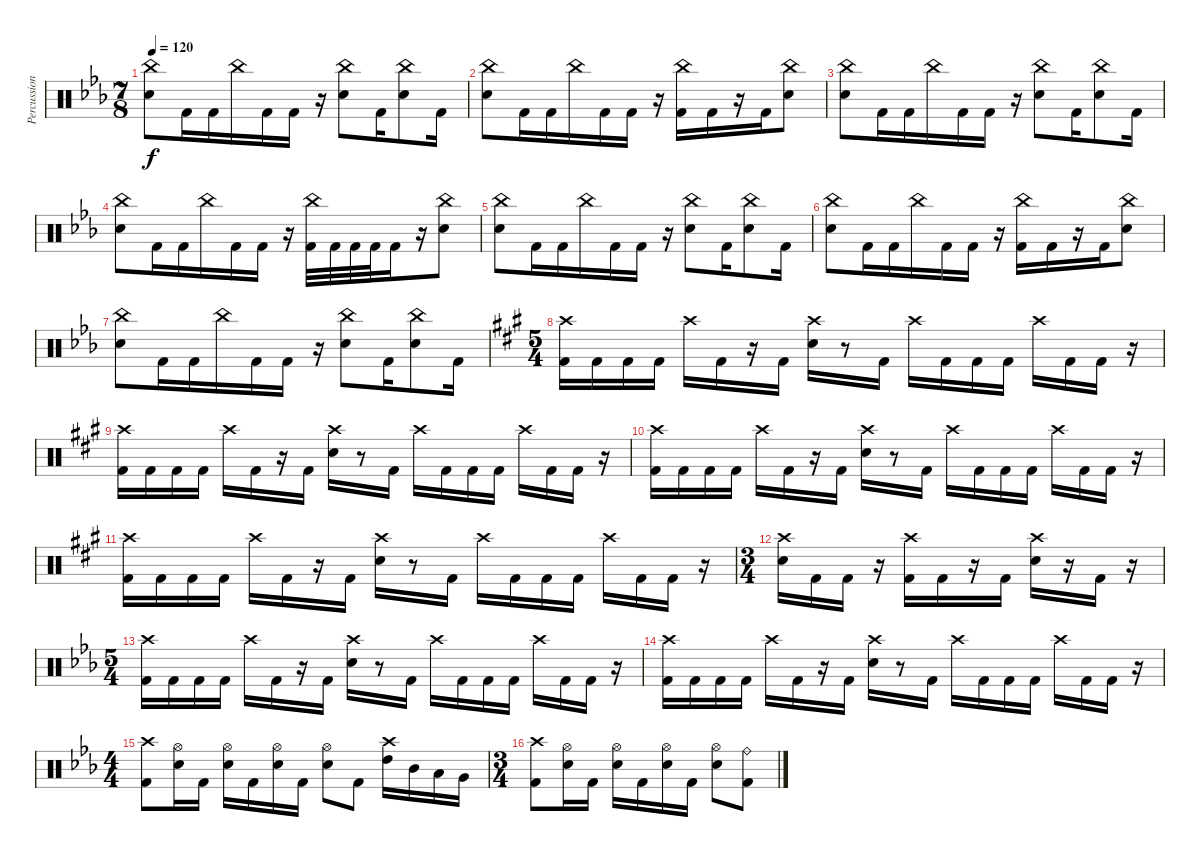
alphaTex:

\track ("Percussion" "Percussion") {instrument percussion}
\staff {score}
\articulation defaults
\ts (7 8)
\tempo 120
\clef neutral
\ks eb
("China (hit)" "Electric Snare (hit)").8{dy f} "Kick (hit) 2".16 "Kick (hit) 2".16 "China (hit)".16 "Kick (hit) 2".16 "Kick (hit) 2".16 r.16 ("China (hit)" "Electric Snare (hit)").8 "Kick (hit) 2".16 ("China (hit)" "Electric Snare (hit)").8 "Kick (hit) 2".16 |
("China (hit)" "Electric Snare (hit)").8 "Kick (hit) 2".16 "Kick (hit) 2".16 "China (hit)".16 "Kick (hit) 2".16 "Kick (hit) 2".16 r.16 ("China (hit)" "Kick (hit) 2").16 "Kick (hit) 2".16 r.16 "Kick (hit) 2".16 ("China (hit)" "Electric Snare (hit)").8 |
("China (hit)" "Electric Snare (hit)").8 "Kick (hit) 2".16 "Kick (hit) 2".16 "China (hit)".16 "Kick (hit) 2".16 "Kick (hit) 2".16 r.16 ("China (hit)" "Electric Snare (hit)").8 "Kick (hit) 2".16 ("China (hit)" "Electric Snare (hit)").8 "Kick (hit) 2".16 |
("China (hit)" "Electric Snare (hit)").8 "Kick (hit) 2".16 "Kick (hit) 2".16 "China (hit)".16 "Kick (hit) 2".16 "Kick (hit) 2".16 r.16 ("China (hit)" "Kick (hit) 2").32 "Kick (hit) 2".32 "Kick (hit) 2".32 "Kick (hit) 2".32 "Kick (hit) 2".16 r.16 ("China (hit)" "Electric Snare (hit)").8 |
("China (hit)" "Electric Snare (hit)").8 "Kick (hit) 2".16 "Kick (hit) 2".16 "China (hit)".16 "Kick (hit) 2".16 "Kick (hit) 2".16 r.16 ("China (hit)" "Electric Snare (hit)").8 "Kick (hit) 2".16 ("China (hit)" "Electric Snare (hit)").8 "Kick (hit) 2".16 |
("China (hit)" "Electric Snare (hit)").8 "Kick (hit) 2".16 "Kick (hit) 2".16 "China (hit)".16 "Kick (hit) 2".16 "Kick (hit) 2".16 r.16 ("China (hit)" "Kick (hit) 2").16 "Kick (hit) 2".16 r.16 "Kick (hit) 2".16 ("China (hit)" "Electric Snare (hit)").8 |
("China (hit)" "Electric Snare (hit)").8 "Kick (hit) 2".16 "Kick (hit) 2".16 "China (hit)".16 "Kick (hit) 2".16 "Kick (hit) 2".16 r.16 ("China (hit)" "Electric Snare (hit)").8 "Kick (hit) 2".16 ("China (hit)" "Electric Snare (hit)").8 "Kick (hit) 2".16 |
\ts (5 4)
\ks a
("Crash high (hit)" "Kick (hit) 2").16 "Kick (hit) 2".16 "Kick (hit) 2".16 "Kick (hit) 2".16 "Crash high (hit)".16 "Kick (hit) 2".16 r.16 "Kick (hit) 2".16 ("Crash high (hit)" "Electric Snare (hit)").16 r.8 "Kick (hit) 2".16 "Crash high (hit)".16 "Kick (hit) 2".16 "Kick (hit) 2".16 "Kick (hit) 2".16 "Crash high (hit)".16 "Kick (hit) 2".16 "Kick (hit) 2".16 r.16 |
("Crash high (hit)" "Kick (hit) 2").16 "Kick (hit) 2".16 "Kick (hit) 2".16 "Kick (hit) 2".16 "Crash high (hit)".16 "Kick (hit) 2".16 r.16 "Kick (hit) 2".16 ("Crash high (hit)" "Electric Snare (hit)").16 r.8 "Kick (hit) 2".16 "Crash high (hit)".16 "Kick (hit) 2".16 "Kick (hit) 2".16 "Kick (hit) 2".16 "Crash high (hit)".16 "Kick (hit) 2".16 "Kick (hit) 2".16 r.16 |
("Crash high (hit)" "Kick (hit) 2").16 "Kick (hit) 2".16 "Kick (hit) 2".16 "Kick (hit) 2".16 "Crash high (hit)".16 "Kick (hit) 2".16 r.16 "Kick (hit) 2".16 ("Crash high (hit)" "Electric Snare (hit)").16 r.8 "Kick (hit) 2".16 "Crash high (hit)".16 "Kick (hit) 2".16 "Kick (hit) 2".16 "Kick (hit) 2".16 "Crash high (hit)".16 "Kick (hit) 2".16 "Kick (hit) 2".16 r.16 |
("Crash high (hit)" "Kick (hit) 2").16 "Kick (hit) 2".16 "Kick (hit) 2".16 "Kick (hit) 2".16 "Crash high (hit)".16 "Kick (hit) 2".16 r.16 "Kick (hit) 2".16 ("Crash high (hit)" "Electric Snare (hit)").16 r.8 "Kick (hit) 2".16 "Crash high (hit)".16 "Kick (hit) 2".16 "Kick (hit) 2".16 "Kick (hit) 2".16 "Crash high (hit)".16 "Kick (hit) 2".16 "Kick (hit) 2".16 r.16 |
\ts (3 4)
("Crash high (hit)" "Electric Snare (hit)").16 "Kick (hit) 2".16 "Kick (hit) 2".16 r.16 ("Crash high (hit)" "Kick (hit) 2").16 "Kick (hit) 2".16 r.16 "Kick (hit) 2".16 ("Crash high (hit)" "Electric Snare (hit)").16 r.16 "Kick (hit) 2".16 r.16 |
\ts (5 4)
\ks eb
("Crash high (hit)" "Kick (hit) 2").16 "Kick (hit) 2".16 "Kick (hit) 2".16 "Kick (hit) 2".16 "Crash high (hit)".16 "Kick (hit) 2".16 r.16 "Kick (hit) 2".16 ("Crash high (hit)" "Electric Snare (hit)").16 r.8 "Kick (hit) 2".16 "Crash high (hit)".16 "Kick (hit) 2".16 "Kick (hit) 2".16 "Kick (hit) 2".16 "Crash high (hit)".16 "Kick (hit) 2".16 "Kick (hit) 2".16 r.16 |
("Crash high (hit)" "Kick (hit) 2").16 "Kick (hit) 2".16 "Kick (hit) 2".16 "Kick (hit) 2".16 "Crash high (hit)".16 "Kick (hit) 2".16 r.16 "Kick (hit) 2".16 ("Crash high (hit)" "Electric Snare (hit)").16 r.8 "Kick (hit) 2".16 "Crash high (hit)".16 "Kick (hit) 2".16 "Kick (hit) 2".16 "Kick (hit) 2".16 "Crash high (hit)".16 "Kick (hit) 2".16 "Kick (hit) 2".16 r.16 |
\ts (4 4)
("Crash high (hit)" "Kick (hit) 2").8 ("Hi-Hat (open)" "Electric Snare (hit)").16 "Kick (hit) 2".16 ("Hi-Hat (open)" "Electric Snare (hit)").16 "Kick (hit) 2".16 ("Hi-Hat (open)" "Electric Snare (hit)").16 "Kick (hit) 2".16 ("Hi-Hat (open)" "Electric Snare (hit)").8 "Kick (hit) 2".8 ("Crash high (hit)" "High Tom (hit)").16 "Mid Tom (hit)".16 "Low Tom (hit)".16 "Very Low Tom (hit)".16 |
\ts (3 4)
("Crash high (hit)" "Kick (hit) 2").8 ("Hi-Hat (open)" "Electric Snare (hit)").16 "Kick (hit) 2".16 ("Hi-Hat (open)" "Electric Snare (hit)").16 "Kick (hit) 2".16 ("Hi-Hat (open)" "Electric Snare (hit)").16 "Kick (hit) 2".16 ("Hi-Hat (open)" "Electric Snare (hit)").8 ("Ride (bell)" "Kick (hit) 2").8
